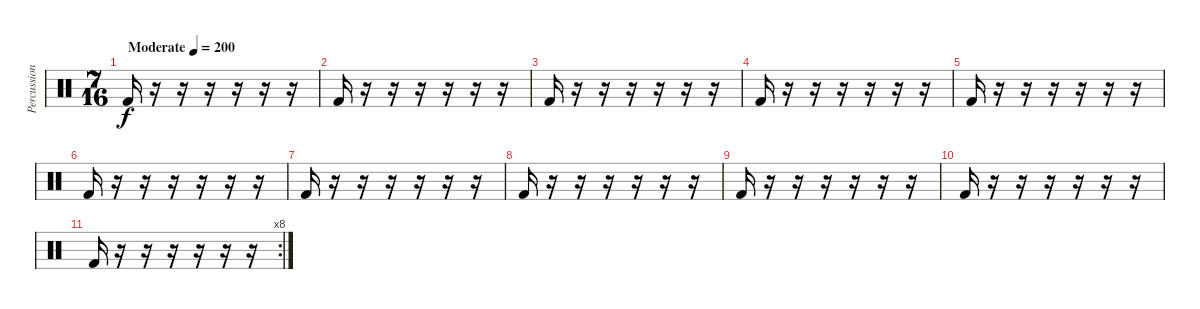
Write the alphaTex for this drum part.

\track ("Percussion" "Percussion") {instrument percussion}
\staff {score}
\articulation defaults
\ts (7 16)
\tempo (200 "Moderate")
\clef neutral
\ks c "Kick (hit) 2".16{dy f}
r.16 r.16 r.16 r.16 r.16 r.16 |
"Kick (hit) 2".16 r.16 r.16 r.16 r.16 r.16 r.16 |
"Kick (hit) 2".16 r.16 r.16 r.16 r.16 r.16 r.16 |
"Kick (hit) 2".16 r.16 r.16 r.16 r.16 r.16 r.16 |
"Kick (hit) 2".16 r.16 r.16 r.16 r.16 r.16 r.16 |
"Kick (hit) 2".16 r.16 r.16 r.16 r.16 r.16 r.16 |
"Kick (hit) 2".16 r.16 r.16 r.16 r.16 r.16 r.16 |
"Kick (hit) 2".16 r.16 r.16 r.16 r.16 r.16 r.16 |
"Kick (hit) 2".16 r.16 r.16 r.16 r.16 r.16 r.16 |
"Kick (hit) 2".16 r.16 r.16 r.16 r.16 r.16 r.16 |
\rc 8 "Kick (hit) 2".16
r.16 r.16 r.16 r.16 r.16 r.16
